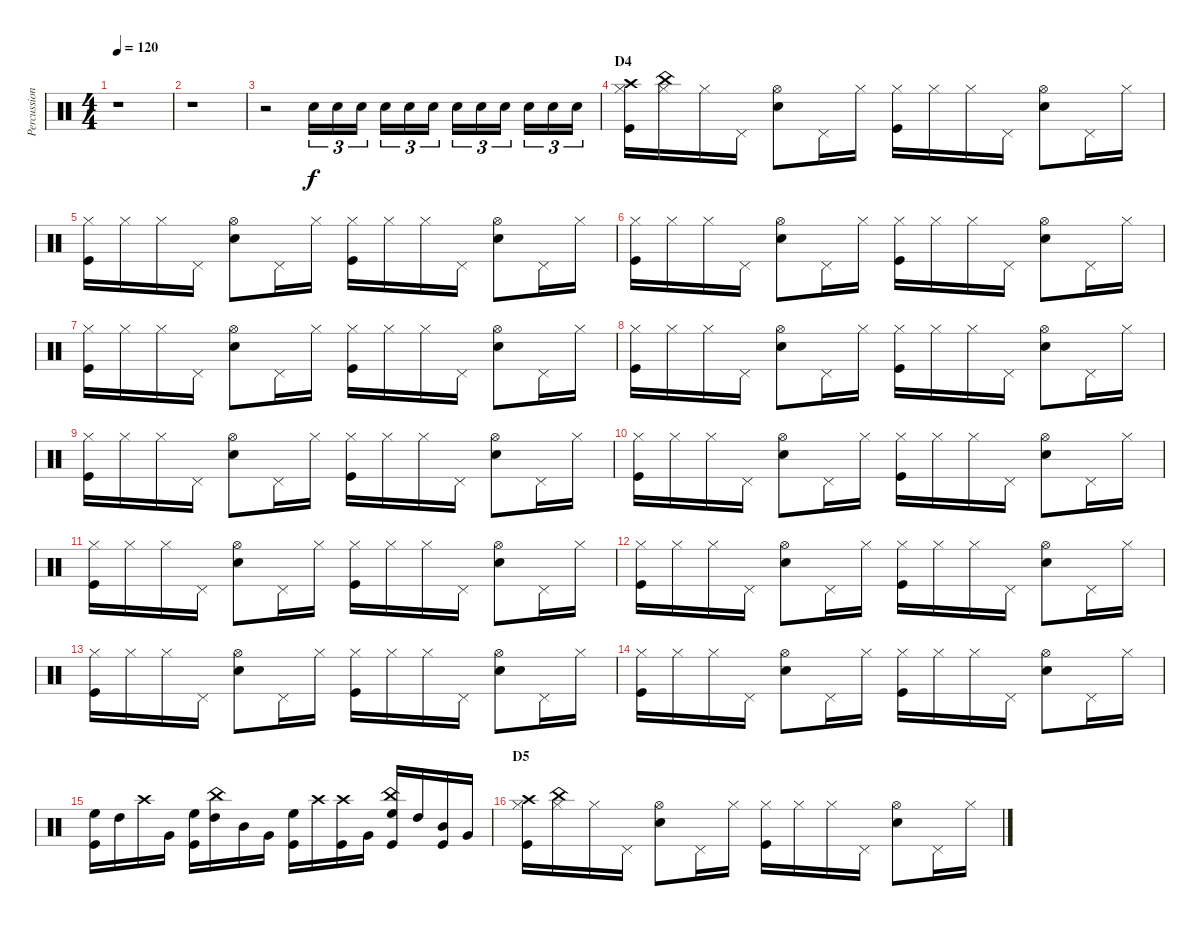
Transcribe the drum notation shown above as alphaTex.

\track ("Percussions" "Percussion") {instrument percussion}
\staff {score}
\articulation defaults
\ts (4 4)
\tempo 120
\clef neutral
\ks c
r.1{dy f} |
r.1 |
r.2 "Snare (hit) 2".16{tu (3 2)} "Snare (hit) 2".16{tu (3 2)} "Snare (hit) 2".16{tu (3 2)} "Snare (hit) 2".16{tu (3 2)} "Snare (hit) 2".16{tu (3 2)} "Snare (hit) 2".16{tu (3 2)} "Snare (hit) 2".16{tu (3 2)} "Snare (hit) 2".16{tu (3 2)} "Snare (hit) 2".16{tu (3 2)} "Snare (hit) 2".16{tu (3 2)} "Snare (hit) 2".16{tu (3 2)} "Snare (hit) 2".16{tu (3 2)} |
\section ("" "D4")
("Hi-Hat (closed)" "Crash high (hit)" "Kick (hit)").16 ("Hi-Hat (closed)" "China (hit)").16 "Hi-Hat (closed)".16 "Pedal Hi-Hat (hit)".16 ("Hi-Hat (open)" "Snare (hit) 2").8 "Pedal Hi-Hat (hit)".16 "Hi-Hat (closed)".16 ("Hi-Hat (closed)" "Kick (hit)").16 "Hi-Hat (closed)".16 "Hi-Hat (closed)".16 "Pedal Hi-Hat (hit)".16 ("Hi-Hat (open)" "Snare (hit) 2").8 "Pedal Hi-Hat (hit)".16 "Hi-Hat (closed)".16 |
("Hi-Hat (closed)" "Kick (hit)").16 "Hi-Hat (closed)".16 "Hi-Hat (closed)".16 "Pedal Hi-Hat (hit)".16 ("Hi-Hat (open)" "Snare (hit) 2").8 "Pedal Hi-Hat (hit)".16 "Hi-Hat (closed)".16 ("Hi-Hat (closed)" "Kick (hit)").16 "Hi-Hat (closed)".16 "Hi-Hat (closed)".16 "Pedal Hi-Hat (hit)".16 ("Hi-Hat (open)" "Snare (hit) 2").8 "Pedal Hi-Hat (hit)".16 "Hi-Hat (closed)".16 |
("Hi-Hat (closed)" "Kick (hit)").16 "Hi-Hat (closed)".16 "Hi-Hat (closed)".16 "Pedal Hi-Hat (hit)".16 ("Hi-Hat (open)" "Snare (hit) 2").8 "Pedal Hi-Hat (hit)".16 "Hi-Hat (closed)".16 ("Hi-Hat (closed)" "Kick (hit)").16 "Hi-Hat (closed)".16 "Hi-Hat (closed)".16 "Pedal Hi-Hat (hit)".16 ("Hi-Hat (open)" "Snare (hit) 2").8 "Pedal Hi-Hat (hit)".16 "Hi-Hat (closed)".16 |
("Hi-Hat (closed)" "Kick (hit)").16 "Hi-Hat (closed)".16 "Hi-Hat (closed)".16 "Pedal Hi-Hat (hit)".16 ("Hi-Hat (open)" "Snare (hit) 2").8 "Pedal Hi-Hat (hit)".16 "Hi-Hat (closed)".16 ("Hi-Hat (closed)" "Kick (hit)").16 "Hi-Hat (closed)".16 "Hi-Hat (closed)".16 "Pedal Hi-Hat (hit)".16 ("Hi-Hat (open)" "Snare (hit) 2").8 "Pedal Hi-Hat (hit)".16 "Hi-Hat (closed)".16 |
("Hi-Hat (closed)" "Kick (hit)").16 "Hi-Hat (closed)".16 "Hi-Hat (closed)".16 "Pedal Hi-Hat (hit)".16 ("Hi-Hat (open)" "Snare (hit) 2").8 "Pedal Hi-Hat (hit)".16 "Hi-Hat (closed)".16 ("Hi-Hat (closed)" "Kick (hit)").16 "Hi-Hat (closed)".16 "Hi-Hat (closed)".16 "Pedal Hi-Hat (hit)".16 ("Hi-Hat (open)" "Snare (hit) 2").8 "Pedal Hi-Hat (hit)".16 "Hi-Hat (closed)".16 |
("Hi-Hat (closed)" "Kick (hit)").16 "Hi-Hat (closed)".16 "Hi-Hat (closed)".16 "Pedal Hi-Hat (hit)".16 ("Hi-Hat (open)" "Snare (hit) 2").8 "Pedal Hi-Hat (hit)".16 "Hi-Hat (closed)".16 ("Hi-Hat (closed)" "Kick (hit)").16 "Hi-Hat (closed)".16 "Hi-Hat (closed)".16 "Pedal Hi-Hat (hit)".16 ("Hi-Hat (open)" "Snare (hit) 2").8 "Pedal Hi-Hat (hit)".16 "Hi-Hat (closed)".16 |
("Hi-Hat (closed)" "Kick (hit)").16 "Hi-Hat (closed)".16 "Hi-Hat (closed)".16 "Pedal Hi-Hat (hit)".16 ("Hi-Hat (open)" "Snare (hit) 2").8 "Pedal Hi-Hat (hit)".16 "Hi-Hat (closed)".16 ("Hi-Hat (closed)" "Kick (hit)").16 "Hi-Hat (closed)".16 "Hi-Hat (closed)".16 "Pedal Hi-Hat (hit)".16 ("Hi-Hat (open)" "Snare (hit) 2").8 "Pedal Hi-Hat (hit)".16 "Hi-Hat (closed)".16 |
("Hi-Hat (closed)" "Kick (hit)").16 "Hi-Hat (closed)".16 "Hi-Hat (closed)".16 "Pedal Hi-Hat (hit)".16 ("Hi-Hat (open)" "Snare (hit) 2").8 "Pedal Hi-Hat (hit)".16 "Hi-Hat (closed)".16 ("Hi-Hat (closed)" "Kick (hit)").16 "Hi-Hat (closed)".16 "Hi-Hat (closed)".16 "Pedal Hi-Hat (hit)".16 ("Hi-Hat (open)" "Snare (hit) 2").8 "Pedal Hi-Hat (hit)".16 "Hi-Hat (closed)".16 |
("Hi-Hat (closed)" "Kick (hit)").16 "Hi-Hat (closed)".16 "Hi-Hat (closed)".16 "Pedal Hi-Hat (hit)".16 ("Hi-Hat (open)" "Snare (hit) 2").8 "Pedal Hi-Hat (hit)".16 "Hi-Hat (closed)".16 ("Hi-Hat (closed)" "Kick (hit)").16 "Hi-Hat (closed)".16 "Hi-Hat (closed)".16 "Pedal Hi-Hat (hit)".16 ("Hi-Hat (open)" "Snare (hit) 2").8 "Pedal Hi-Hat (hit)".16 "Hi-Hat (closed)".16 |
("Hi-Hat (closed)" "Kick (hit)").16 "Hi-Hat (closed)".16 "Hi-Hat (closed)".16 "Pedal Hi-Hat (hit)".16 ("Hi-Hat (open)" "Snare (hit) 2").8 "Pedal Hi-Hat (hit)".16 "Hi-Hat (closed)".16 ("Hi-Hat (closed)" "Kick (hit)").16 "Hi-Hat (closed)".16 "Hi-Hat (closed)".16 "Pedal Hi-Hat (hit)".16 ("Hi-Hat (open)" "Snare (hit) 2").8 "Pedal Hi-Hat (hit)".16 "Hi-Hat (closed)".16 |
("Hi-Hat (closed)" "Kick (hit)").16 "Hi-Hat (closed)".16 "Hi-Hat (closed)".16 "Pedal Hi-Hat (hit)".16 ("Hi-Hat (open)" "Snare (hit) 2").8 "Pedal Hi-Hat (hit)".16 "Hi-Hat (closed)".16 ("Hi-Hat (closed)" "Kick (hit)").16 "Hi-Hat (closed)".16 "Hi-Hat (closed)".16 "Pedal Hi-Hat (hit)".16 ("Hi-Hat (open)" "Snare (hit) 2").8 "Pedal Hi-Hat (hit)".16 "Hi-Hat (closed)".16 |
("High Floor Tom (hit)" "Kick (hit)").16 "High Tom (hit)".16 "Crash high (hit)".16 "Very Low Tom (hit)".16 ("High Floor Tom (hit)" "Kick (hit)").16 ("High Tom (hit)" "China (hit)").16 "Mid Tom (hit)".16 "Very Low Tom (hit)".16 ("High Floor Tom (hit)" "Kick (hit)").16 "Crash high (hit)".16 ("Crash high (hit)" "Kick (hit)").16 "Very Low Tom (hit)".16 ("High Floor Tom (hit)" "China (hit)" "Kick (hit)").16 "High Tom (hit)".16 ("Mid Tom (hit)" "Kick (hit)").16 "Very Low Tom (hit)".16 |
\section ("" "D5")
("Hi-Hat (closed)" "Crash high (hit)" "Kick (hit)").16 ("Hi-Hat (closed)" "China (hit)").16 "Hi-Hat (closed)".16 "Pedal Hi-Hat (hit)".16 ("Hi-Hat (open)" "Snare (hit) 2").8 "Pedal Hi-Hat (hit)".16 "Hi-Hat (closed)".16 ("Hi-Hat (closed)" "Kick (hit)").16 "Hi-Hat (closed)".16 "Hi-Hat (closed)".16 "Pedal Hi-Hat (hit)".16 ("Hi-Hat (open)" "Snare (hit) 2").8 "Pedal Hi-Hat (hit)".16 "Hi-Hat (closed)".16
